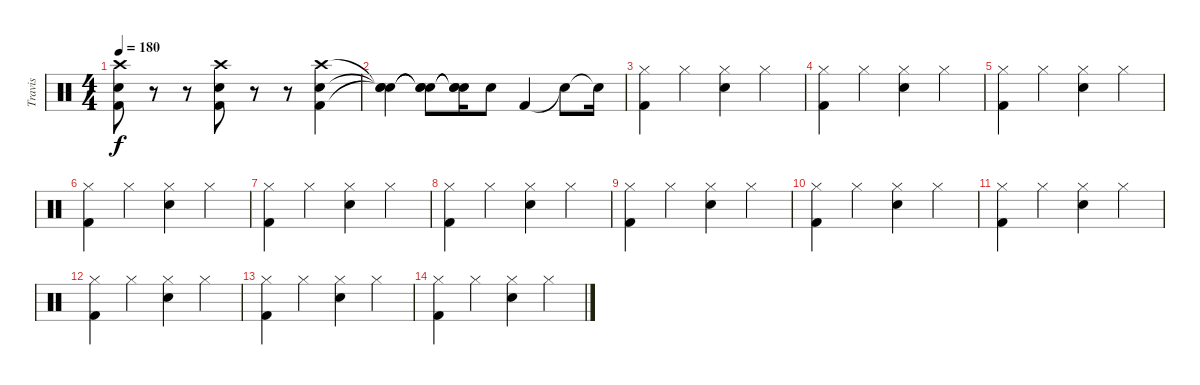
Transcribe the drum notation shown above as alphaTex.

\track ("Travis" "Travis") {instrument percussion}
\staff {score}
\articulation defaults
\ts (4 4)
\tempo 180
\clef neutral
\ks c
("Crash high (hit)" "Kick (hit) 2" "Snare (hit) 2").8{dy f} r.8 r.8 ("Crash high (hit)" "Kick (hit) 2" "Snare (hit) 2").8 r.8 r.8 ("Crash high (hit)" "Kick (hit) 2" "Snare (hit) 2").4 |
("Snare (hit)"{t} "Snare (hit)"{t} "Snare (hit)"{t}).4 ("Snare (hit)"{t} "Snare (hit) 2"{t} "Snare (hit)"{t}).8 ("Snare (hit)"{t} "Snare (hit) 2"{t} "Snare (hit)"{t}).16 "Snare (hit) 2".8 "Kick (hit) 2".4 "Snare (hit)"{t}.8 "Snare (hit)"{t}.16 |
("Hi-Hat (closed)" "Kick (hit) 2").4 "Hi-Hat (closed)".4 ("Hi-Hat (closed)" "Snare (hit) 2").4 "Hi-Hat (closed)".4 |
("Hi-Hat (closed)" "Kick (hit) 2").4 "Hi-Hat (closed)".4 ("Hi-Hat (closed)" "Snare (hit) 2").4 "Hi-Hat (closed)".4 |
("Hi-Hat (closed)" "Kick (hit) 2").4 "Hi-Hat (closed)".4 ("Hi-Hat (closed)" "Snare (hit) 2").4 "Hi-Hat (closed)".4 |
("Hi-Hat (closed)" "Kick (hit) 2").4 "Hi-Hat (closed)".4 ("Hi-Hat (closed)" "Snare (hit) 2").4 "Hi-Hat (closed)".4 |
("Hi-Hat (closed)" "Kick (hit) 2").4 "Hi-Hat (closed)".4 ("Hi-Hat (closed)" "Snare (hit) 2").4 "Hi-Hat (closed)".4 |
("Hi-Hat (closed)" "Kick (hit) 2").4 "Hi-Hat (closed)".4 ("Hi-Hat (closed)" "Snare (hit) 2").4 "Hi-Hat (closed)".4 |
("Hi-Hat (closed)" "Kick (hit) 2").4 "Hi-Hat (closed)".4 ("Hi-Hat (closed)" "Snare (hit) 2").4 "Hi-Hat (closed)".4 |
("Hi-Hat (closed)" "Kick (hit) 2").4 "Hi-Hat (closed)".4 ("Hi-Hat (closed)" "Snare (hit) 2").4 "Hi-Hat (closed)".4 |
("Hi-Hat (closed)" "Kick (hit) 2").4 "Hi-Hat (closed)".4 ("Hi-Hat (closed)" "Snare (hit) 2").4 "Hi-Hat (closed)".4 |
("Hi-Hat (closed)" "Kick (hit) 2").4 "Hi-Hat (closed)".4 ("Hi-Hat (closed)" "Snare (hit) 2").4 "Hi-Hat (closed)".4 |
("Hi-Hat (closed)" "Kick (hit) 2").4 "Hi-Hat (closed)".4 ("Hi-Hat (closed)" "Snare (hit) 2").4 "Hi-Hat (closed)".4 |
("Hi-Hat (closed)" "Kick (hit) 2").4 "Hi-Hat (closed)".4 ("Hi-Hat (closed)" "Snare (hit) 2").4 "Hi-Hat (closed)".4
